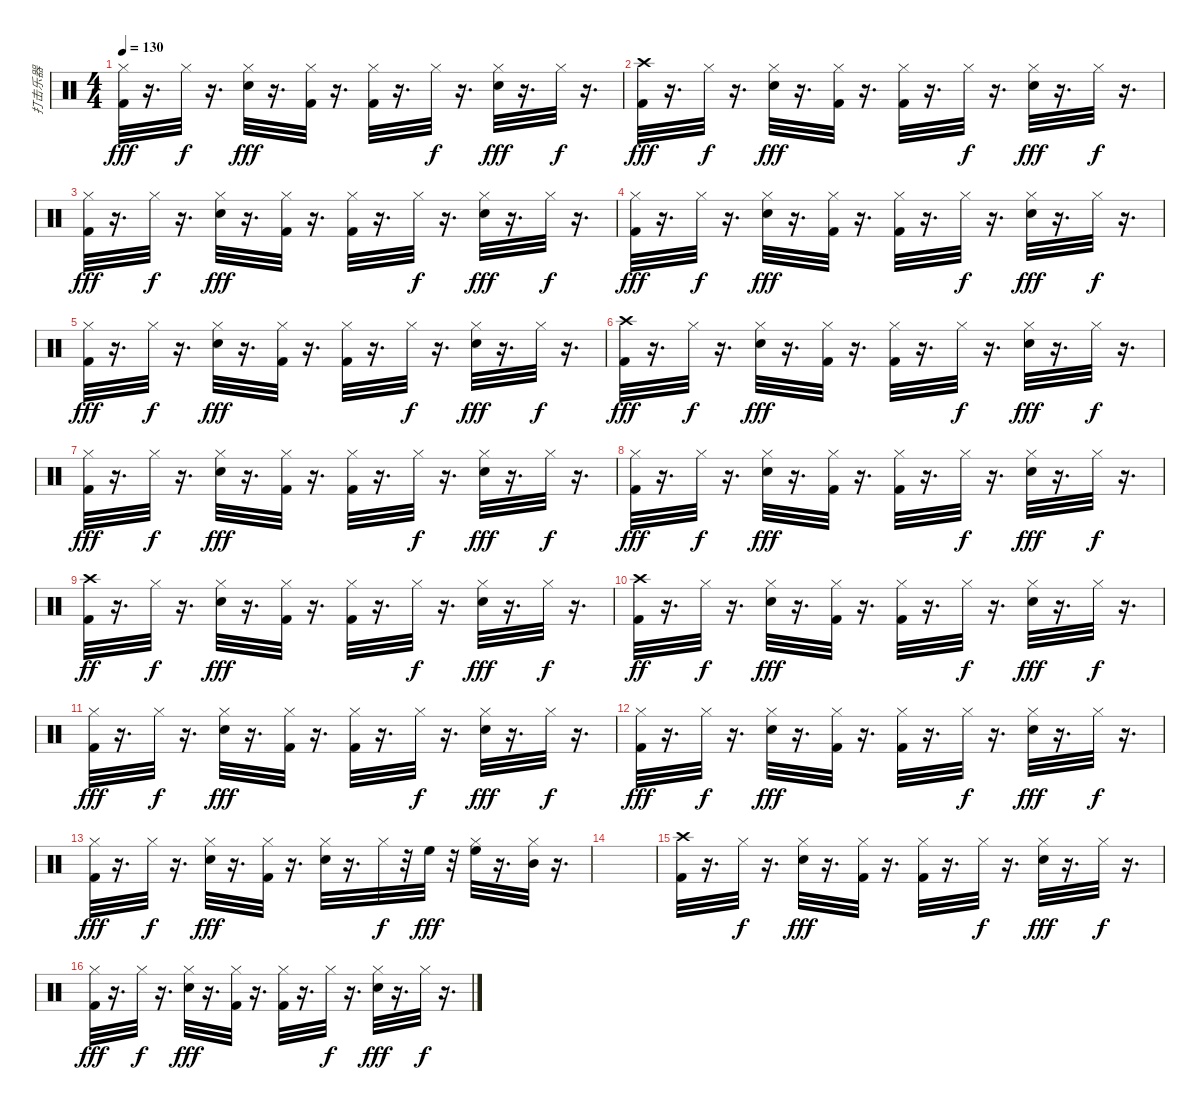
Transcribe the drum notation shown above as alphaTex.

\track ("打击乐器" "打击乐器") {instrument percussion}
\staff {score}
\articulation defaults
\ts (4 4)
\tempo 130
\clef neutral
\ks c
("Kick (hit) 2" "Hi-Hat (closed)").32{dy fff} r.16{d} "Hi-Hat (closed)".32{dy f} r.16{d} ("Hi-Hat (closed)" "Electric Snare (hit)").32{dy fff} r.16{d} ("Kick (hit) 2" "Hi-Hat (closed)").32 r.16{d} ("Kick (hit) 2" "Hi-Hat (closed)").32 r.16{d} "Hi-Hat (closed)".32{dy f} r.16{d} ("Hi-Hat (closed)" "Electric Snare (hit)").32{dy fff} r.16{d} "Hi-Hat (closed)".32{dy f} r.16{d} |
("Crash high (hit)" "Kick (hit) 2").32{dy fff} r.16{d} "Hi-Hat (closed)".32{dy f} r.16{d} ("Hi-Hat (closed)" "Electric Snare (hit)").32{dy fff} r.16{d} ("Kick (hit) 2" "Hi-Hat (closed)").32 r.16{d} ("Kick (hit) 2" "Hi-Hat (closed)").32 r.16{d} "Hi-Hat (closed)".32{dy f} r.16{d} ("Hi-Hat (closed)" "Electric Snare (hit)").32{dy fff} r.16{d} "Hi-Hat (closed)".32{dy f} r.16{d} |
("Kick (hit) 2" "Hi-Hat (closed)").32{dy fff} r.16{d} "Hi-Hat (closed)".32{dy f} r.16{d} ("Hi-Hat (closed)" "Electric Snare (hit)").32{dy fff} r.16{d} ("Kick (hit) 2" "Hi-Hat (closed)").32 r.16{d} ("Kick (hit) 2" "Hi-Hat (closed)").32 r.16{d} "Hi-Hat (closed)".32{dy f} r.16{d} ("Hi-Hat (closed)" "Electric Snare (hit)").32{dy fff} r.16{d} "Hi-Hat (closed)".32{dy f} r.16{d} |
("Kick (hit) 2" "Hi-Hat (closed)").32{dy fff} r.16{d} "Hi-Hat (closed)".32{dy f} r.16{d} ("Hi-Hat (closed)" "Electric Snare (hit)").32{dy fff} r.16{d} ("Kick (hit) 2" "Hi-Hat (closed)").32 r.16{d} ("Kick (hit) 2" "Hi-Hat (closed)").32 r.16{d} "Hi-Hat (closed)".32{dy f} r.16{d} ("Hi-Hat (closed)" "Electric Snare (hit)").32{dy fff} r.16{d} "Hi-Hat (closed)".32{dy f} r.16{d} |
("Kick (hit) 2" "Hi-Hat (closed)").32{dy fff} r.16{d} "Hi-Hat (closed)".32{dy f} r.16{d} ("Hi-Hat (closed)" "Electric Snare (hit)").32{dy fff} r.16{d} ("Kick (hit) 2" "Hi-Hat (closed)").32 r.16{d} ("Kick (hit) 2" "Hi-Hat (closed)").32 r.16{d} "Hi-Hat (closed)".32{dy f} r.16{d} ("Hi-Hat (closed)" "Electric Snare (hit)").32{dy fff} r.16{d} "Hi-Hat (closed)".32{dy f} r.16{d} |
("Crash high (hit)" "Kick (hit) 2").32{dy fff} r.16{d} "Hi-Hat (closed)".32{dy f} r.16{d} ("Hi-Hat (closed)" "Electric Snare (hit)").32{dy fff} r.16{d} ("Kick (hit) 2" "Hi-Hat (closed)").32 r.16{d} ("Kick (hit) 2" "Hi-Hat (closed)").32 r.16{d} "Hi-Hat (closed)".32{dy f} r.16{d} ("Hi-Hat (closed)" "Electric Snare (hit)").32{dy fff} r.16{d} "Hi-Hat (closed)".32{dy f} r.16{d} |
("Kick (hit) 2" "Hi-Hat (closed)").32{dy fff} r.16{d} "Hi-Hat (closed)".32{dy f} r.16{d} ("Hi-Hat (closed)" "Electric Snare (hit)").32{dy fff} r.16{d} ("Kick (hit) 2" "Hi-Hat (closed)").32 r.16{d} ("Kick (hit) 2" "Hi-Hat (closed)").32 r.16{d} "Hi-Hat (closed)".32{dy f} r.16{d} ("Hi-Hat (closed)" "Electric Snare (hit)").32{dy fff} r.16{d} "Hi-Hat (closed)".32{dy f} r.16{d} |
("Kick (hit) 2" "Hi-Hat (closed)").32{dy fff} r.16{d} "Hi-Hat (closed)".32{dy f} r.16{d} ("Hi-Hat (closed)" "Electric Snare (hit)").32{dy fff} r.16{d} ("Kick (hit) 2" "Hi-Hat (closed)").32 r.16{d} ("Kick (hit) 2" "Hi-Hat (closed)").32 r.16{d} "Hi-Hat (closed)".32{dy f} r.16{d} ("Hi-Hat (closed)" "Electric Snare (hit)").32{dy fff} r.16{d} "Hi-Hat (closed)".32{dy f} r.16{d} |
("Kick (hit) 2" "Crash high (hit)").32{dy ff} r.16{d} "Hi-Hat (closed)".32{dy f} r.16{d} ("Hi-Hat (closed)" "Electric Snare (hit)").32{dy fff} r.16{d} ("Kick (hit) 2" "Hi-Hat (closed)").32 r.16{d} ("Kick (hit) 2" "Hi-Hat (closed)").32 r.16{d} "Hi-Hat (closed)".32{dy f} r.16{d} ("Hi-Hat (closed)" "Electric Snare (hit)").32{dy fff} r.16{d} "Hi-Hat (closed)".32{dy f} r.16{d} |
("Kick (hit) 2" "Crash high (hit)").32{dy ff} r.16{d} "Hi-Hat (closed)".32{dy f} r.16{d} ("Hi-Hat (closed)" "Electric Snare (hit)").32{dy fff} r.16{d} ("Kick (hit) 2" "Hi-Hat (closed)").32 r.16{d} ("Kick (hit) 2" "Hi-Hat (closed)").32 r.16{d} "Hi-Hat (closed)".32{dy f} r.16{d} ("Hi-Hat (closed)" "Electric Snare (hit)").32{dy fff} r.16{d} "Hi-Hat (closed)".32{dy f} r.16{d} |
("Hi-Hat (closed)" "Kick (hit) 2").32{dy fff} r.16{d} "Hi-Hat (closed)".32{dy f} r.16{d} ("Hi-Hat (closed)" "Electric Snare (hit)").32{dy fff} r.16{d} ("Kick (hit) 2" "Hi-Hat (closed)").32 r.16{d} ("Kick (hit) 2" "Hi-Hat (closed)").32 r.16{d} "Hi-Hat (closed)".32{dy f} r.16{d} ("Hi-Hat (closed)" "Electric Snare (hit)").32{dy fff} r.16{d} "Hi-Hat (closed)".32{dy f} r.16{d} |
("Kick (hit) 2" "Hi-Hat (closed)").32{dy fff} r.16{d} "Hi-Hat (closed)".32{dy f} r.16{d} ("Hi-Hat (closed)" "Electric Snare (hit)").32{dy fff} r.16{d} ("Kick (hit) 2" "Hi-Hat (closed)").32 r.16{d} ("Kick (hit) 2" "Hi-Hat (closed)").32 r.16{d} "Hi-Hat (closed)".32{dy f} r.16{d} ("Hi-Hat (closed)" "Electric Snare (hit)").32{dy fff} r.16{d} "Hi-Hat (closed)".32{dy f} r.16{d} |
("Kick (hit) 2" "Hi-Hat (closed)").32{dy fff} r.16{d} "Hi-Hat (closed)".32{dy f} r.16{d} ("Electric Snare (hit)" "Hi-Hat (closed)").32{dy fff} r.16{d} ("Kick (hit) 2" "Hi-Hat (closed)").32 r.16{d} ("Electric Snare (hit)" "Hi-Hat (closed)").32 r.16{d} "Hi-Hat (closed)".32{dy f} r.32 "High Floor Tom (hit)".32{dy fff} r.32 ("High Floor Tom (hit)" "Hi-Hat (closed)").32 r.16{d} ("Mid Tom (hit)" "Hi-Hat (closed)").32 r.16{d} |
|
("Crash high (hit)" "Kick (hit) 2").32 r.16{d} "Hi-Hat (closed)".32{dy f} r.16{d} ("Hi-Hat (closed)" "Electric Snare (hit)").32{dy fff} r.16{d} ("Kick (hit) 2" "Hi-Hat (closed)").32 r.16{d} ("Kick (hit) 2" "Hi-Hat (closed)").32 r.16{d} "Hi-Hat (closed)".32{dy f} r.16{d} ("Hi-Hat (closed)" "Electric Snare (hit)").32{dy fff} r.16{d} "Hi-Hat (closed)".32{dy f} r.16{d} |
("Kick (hit) 2" "Hi-Hat (closed)").32{dy fff} r.16{d} "Hi-Hat (closed)".32{dy f} r.16{d} ("Hi-Hat (closed)" "Electric Snare (hit)").32{dy fff} r.16{d} ("Kick (hit) 2" "Hi-Hat (closed)").32 r.16{d} ("Kick (hit) 2" "Hi-Hat (closed)").32 r.16{d} "Hi-Hat (closed)".32{dy f} r.16{d} ("Hi-Hat (closed)" "Electric Snare (hit)").32{dy fff} r.16{d} "Hi-Hat (closed)".32{dy f} r.16{d}
